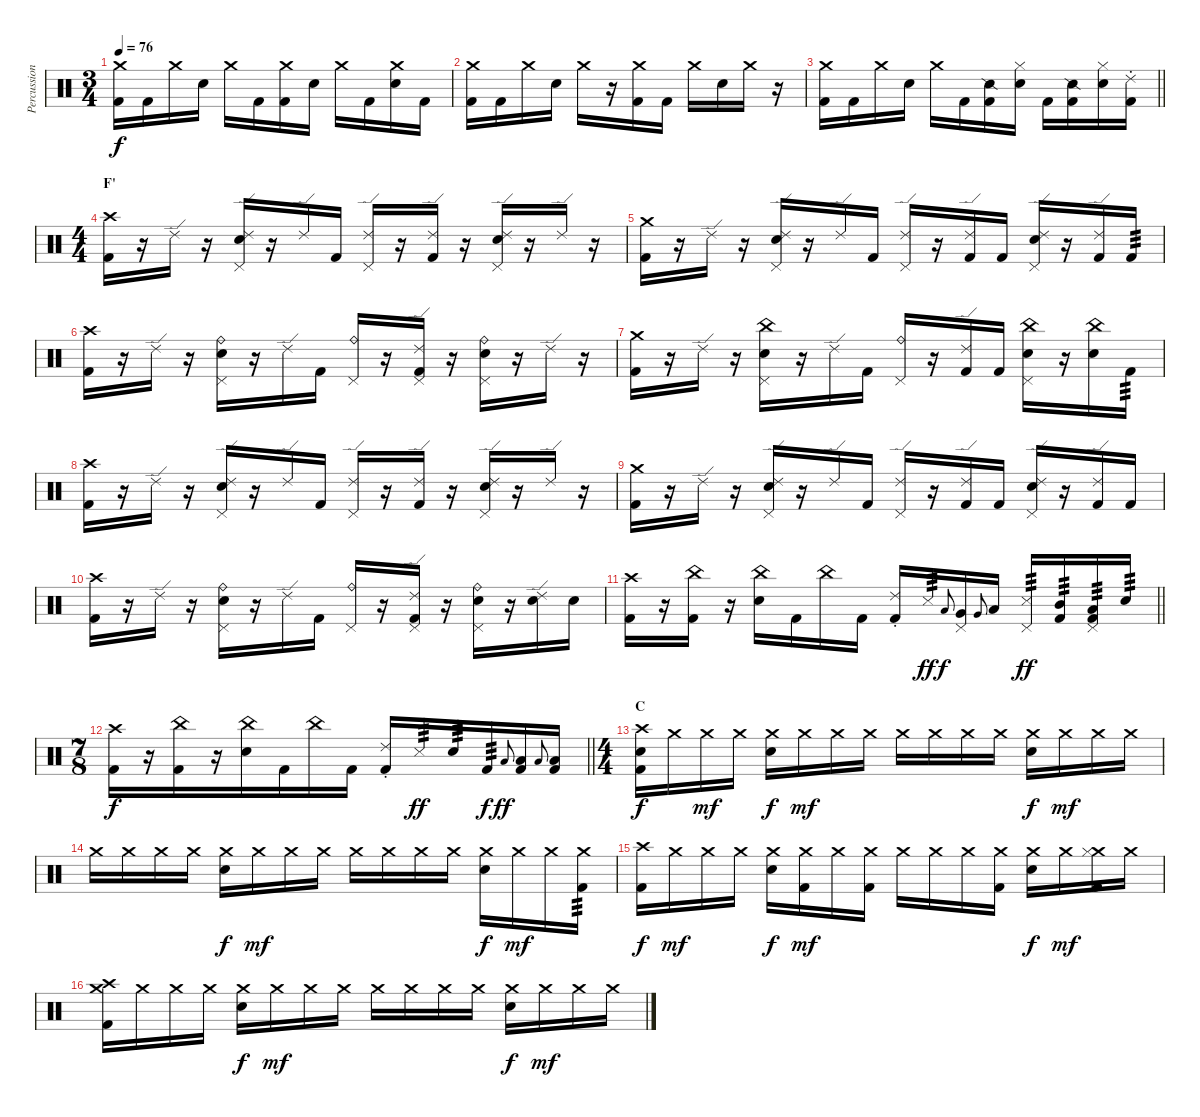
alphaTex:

\track ("Percussion" "Percussion") {instrument percussion}
\staff {score}
\articulation defaults
\ts (3 4)
\tempo 76
\clef neutral
\ks c
("Crash medium (hit)" "Kick (hit) 2").16{dy f} "Kick (hit) 2".16 "Crash medium (hit)".16 "Snare (hit) 2".16 "Crash medium (hit)".16 "Kick (hit) 2".16 ("Crash medium (hit)" "Kick (hit) 2").16 "Snare (hit) 2".16 "Crash medium (hit)".16 "Kick (hit) 2".16 ("Crash medium (hit)" "Snare (hit) 2").16 "Kick (hit) 2".16 |
("Crash medium (hit)" "Kick (hit) 2").16 "Kick (hit) 2".16 "Crash medium (hit)".16 "Snare (hit) 2".16 "Crash medium (hit)".16 r.16 ("Crash medium (hit)" "Kick (hit) 2").16 "Kick (hit) 2".16 "Crash medium (hit)".16 "Snare (hit) 2".16 "Crash medium (hit)".16 r.16 |
\barLineRight lightlight
("Crash medium (hit)" "Kick (hit) 2").16 "Kick (hit) 2".16 "Crash medium (hit)".16 "Snare (hit) 2".16 "Crash medium (hit)".16 "Kick (hit) 2".16 ("Snare (side stick) 2" "Kick (hit) 2").16 ("Hi-Hat (closed)" "Snare (hit) 2").16 "Kick (hit) 2".16 ("Snare (side stick) 2" "Kick (hit) 2").16 ("Hi-Hat (closed)" "Snare (hit) 2").16 ("Ride (choke) 2" "Kick (hit) 2").16 |
\ts (4 4)
\section ("" "F'")
("Crash high (hit)" "Kick (hit) 2").16 r.16 "Ride (edge) 2".16 r.16 ("Ride (edge) 2" "Pedal Hi-Hat (hit)" "Snare (hit) 2").16 r.16 "Ride (edge) 2".16 "Kick (hit) 2".16 ("Ride (edge) 2" "Pedal Hi-Hat (hit)").16 r.16 ("Ride (edge) 2" "Kick (hit) 2").16 r.16 ("Ride (edge) 2" "Pedal Hi-Hat (hit)" "Snare (hit) 2").16 r.16 "Ride (edge) 2".16 r.16 |
("Crash medium (hit)" "Kick (hit) 2").16 r.16 "Ride (edge) 2".16 r.16 ("Ride (edge) 2" "Pedal Hi-Hat (hit)" "Snare (hit) 2").16 r.16 "Ride (edge) 2".16 "Kick (hit) 2".16 ("Ride (edge) 2" "Pedal Hi-Hat (hit)").16 r.16 ("Ride (edge) 2" "Kick (hit) 2").16 "Kick (hit) 2".16 ("Ride (edge) 2" "Pedal Hi-Hat (hit)" "Snare (hit) 2").16 r.16 ("Ride (edge) 2" "Kick (hit) 2").16 "Kick (hit) 2".16{tp 3} |
("Crash high (hit)" "Kick (hit) 2").16 r.16 "Ride (edge) 2".16 r.16 ("Ride (bell)" "Pedal Hi-Hat (hit)" "Snare (hit) 2").16 r.16 "Ride (edge) 2".16 "Kick (hit) 2".16 ("Ride (bell)" "Pedal Hi-Hat (hit)").16 r.16 ("Ride (edge) 2" "Pedal Hi-Hat (hit)" "Kick (hit) 2").16 r.16 ("Ride (bell)" "Pedal Hi-Hat (hit)" "Snare (hit) 2").16 r.16 "Ride (edge) 2".16 r.16 |
("Crash medium (hit)" "Kick (hit) 2").16 r.16 "Ride (edge) 2".16 r.16 ("China (hit)" "Pedal Hi-Hat (hit)" "Snare (hit) 2").16 r.16 "Ride (edge) 2".16 "Kick (hit) 2".16 ("Ride (bell)" "Pedal Hi-Hat (hit)").16 r.16 ("Ride (edge) 2" "Kick (hit) 2").16 "Kick (hit) 2".16 ("China (hit)" "Pedal Hi-Hat (hit)" "Snare (hit) 2").16 r.16 ("China (hit)" "Snare (hit) 2").16 "Kick (hit) 2".16{tp 3} |
("Crash high (hit)" "Kick (hit) 2").16 r.16 "Ride (edge) 2".16 r.16 ("Ride (edge) 2" "Pedal Hi-Hat (hit)" "Snare (hit) 2").16 r.16 "Ride (edge) 2".16 "Kick (hit) 2".16 ("Ride (edge) 2" "Pedal Hi-Hat (hit)").16 r.16 ("Ride (edge) 2" "Kick (hit) 2").16 r.16 ("Ride (edge) 2" "Pedal Hi-Hat (hit)" "Snare (hit) 2").16 r.16 "Ride (edge) 2".16 r.16 |
("Crash medium (hit)" "Kick (hit) 2").16 r.16 "Ride (edge) 2".16 r.16 ("Ride (edge) 2" "Pedal Hi-Hat (hit)" "Snare (hit) 2").16 r.16 "Ride (edge) 2".16 "Kick (hit) 2".16 ("Ride (edge) 2" "Pedal Hi-Hat (hit)").16 r.16 ("Ride (edge) 2" "Kick (hit) 2").16 "Kick (hit) 2".16 ("Ride (edge) 2" "Pedal Hi-Hat (hit)" "Snare (hit) 2").16 r.16 ("Ride (edge) 2" "Kick (hit) 2").16 "Kick (hit) 2".16 |
("Crash high (hit)" "Kick (hit) 2").16 r.16 "Ride (edge) 2".16 r.16 ("Ride (bell)" "Pedal Hi-Hat (hit)" "Snare (hit) 2").16 r.16 "Ride (edge) 2".16 "Kick (hit) 2".16 ("Ride (bell)" "Pedal Hi-Hat (hit)").16 r.16 ("Ride (edge) 2" "Pedal Hi-Hat (hit)" "Kick (hit) 2").16 r.16 ("Ride (bell)" "Pedal Hi-Hat (hit)" "Snare (hit) 2").16 r.16 ("Ride (edge) 2" "Snare (hit) 2").16 "Snare (hit) 2".16 |
\barLineRight lightlight
("Crash high (hit)" "Kick (hit) 2").16 r.16 ("China (hit)" "Kick (hit) 2").16 r.16 ("China (hit)" "Snare (hit) 2").16 "Kick (hit) 2".16 "China (hit)".16 "Kick (hit) 2".16 ("Ride (choke) 2" "Kick (hit) 2").16 "Metronome (hit)".16{tp 3 dy ff} "Low Tom (hit)".8{gr onbeat dy f} ("Pedal Hi-Hat (hit)" "Very Low Tom (hit)").16 "Very Low Tom (hit)".8{gr onbeat} "Low Floor Tom (hit)".16 ("Pedal Hi-Hat (hit)" "Metronome (hit)").16{tp 3 dy ff} ("Mid Tom (hit)" "Kick (hit) 2").16{tp 3} ("Pedal Hi-Hat (hit)" "Low Tom (hit)" "Kick (hit) 2").16{tp 3} "Snare (hit) 2".16{tp 3} |
\ts (7 8)
\barLineRight lightlight
("Crash high (hit)" "Kick (hit) 2").16{dy f} r.16 ("China (hit)" "Kick (hit) 2").16 r.16 ("China (hit)" "Snare (hit) 2").16 "Kick (hit) 2".16 "China (hit)".16 "Kick (hit) 2".16 ("Ride (choke) 2" "Kick (hit) 2").16 "Metronome (hit)".16{tp 3 dy ff} "Snare (hit) 2".16{tp 3} "Kick (hit) 2".16{tp 3 dy f} "Low Tom (hit)".8{gr onbeat dy ff} ("Low Tom (hit)" "Kick (hit) 2").16 "Low Tom (hit)".8{gr onbeat} ("Low Tom (hit)" "Kick (hit) 2").16 |
\ts (4 4)
\section ("" "C")
("Crash high (hit)" "Snare (hit) 2" "Kick (hit) 2").16{dy f} "Crash medium (hit)".16 "Crash medium (hit)".16{dy mf} "Crash medium (hit)".16 ("Crash medium (hit)" "Snare (hit) 2").16{dy f} "Crash medium (hit)".16{dy mf} "Crash medium (hit)".16 "Crash medium (hit)".16 "Crash medium (hit)".16 "Crash medium (hit)".16 "Crash medium (hit)".16 "Crash medium (hit)".16 ("Crash medium (hit)" "Snare (hit) 2").16{dy f} "Crash medium (hit)".16{dy mf} "Crash medium (hit)".16 "Crash medium (hit)".16 |
"Crash medium (hit)".16 "Crash medium (hit)".16 "Crash medium (hit)".16 "Crash medium (hit)".16 ("Crash medium (hit)" "Snare (hit) 2").16{dy f} "Crash medium (hit)".16{dy mf} "Crash medium (hit)".16 "Crash medium (hit)".16 "Crash medium (hit)".16 "Crash medium (hit)".16 "Crash medium (hit)".16 "Crash medium (hit)".16 ("Crash medium (hit)" "Snare (hit) 2").16{dy f} "Crash medium (hit)".16{dy mf} "Crash medium (hit)".16 ("Crash medium (hit)" "Kick (hit) 2").16{tp 3} |
("Crash high (hit)" "Kick (hit) 2").16{dy f} "Crash medium (hit)".16{dy mf} "Crash medium (hit)".16 "Crash medium (hit)".16 ("Crash medium (hit)" "Snare (hit) 2").16{dy f} ("Crash medium (hit)" "Kick (hit) 2").16{dy mf} "Crash medium (hit)".16 ("Crash medium (hit)" "Kick (hit) 2").16 "Crash medium (hit)".16 "Crash medium (hit)".16 "Crash medium (hit)".16 ("Crash medium (hit)" "Kick (hit) 2").16 ("Crash medium (hit)" "Snare (hit) 2").16{dy f} "Crash medium (hit)".16{dy mf} ("Crash medium (hit)" "Hi-Hat (closed)" "Kick (hit) 2").16 "Crash medium (hit)".16 |
("Crash medium (hit)" "Crash high (hit)" "Kick (hit) 2").16 "Crash medium (hit)".16 "Crash medium (hit)".16 "Crash medium (hit)".16 ("Crash medium (hit)" "Snare (hit) 2").16{dy f} "Crash medium (hit)".16{dy mf} "Crash medium (hit)".16 "Crash medium (hit)".16 "Crash medium (hit)".16 "Crash medium (hit)".16 "Crash medium (hit)".16 "Crash medium (hit)".16 ("Crash medium (hit)" "Snare (hit) 2").16{dy f} "Crash medium (hit)".16{dy mf} "Crash medium (hit)".16 "Crash medium (hit)".16
